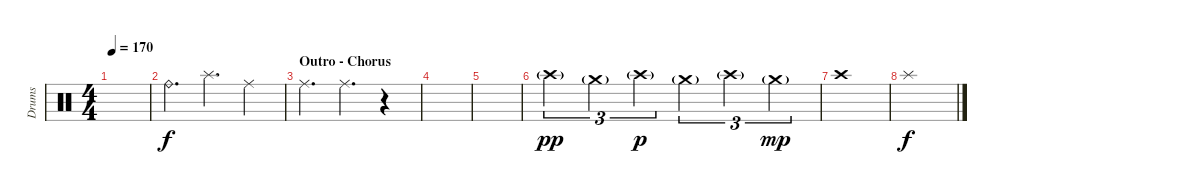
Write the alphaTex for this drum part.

\track ("Drums" "Drums") {instrument percussion}
\staff {score}
\articulation defaults
\ts (4 4)
\tempo 170
\clef neutral
\ks c
|
"Ride (bell)".4{d} "Splash (hit)".4{d} "Ride (middle)".4 |
\section ("" "Outro - Chorus")
"Ride (middle)".4{d} "Ride (middle)".4{d} r.4 |
|
|
"Crash high (hit)"{g}.4{tu (3 2) dy pp} "Crash medium (hit)"{g}.4{tu (3 2)} "Crash high (hit)"{g}.4{tu (3 2) dy p} "Crash medium (hit)"{g}.4{tu (3 2)} "Crash high (hit)"{g}.4{tu (3 2)} "Crash medium (hit)"{g}.4{tu (3 2) dy mp} |
"Crash high (hit)".1 |
"Splash (hit)".1{dy f}
